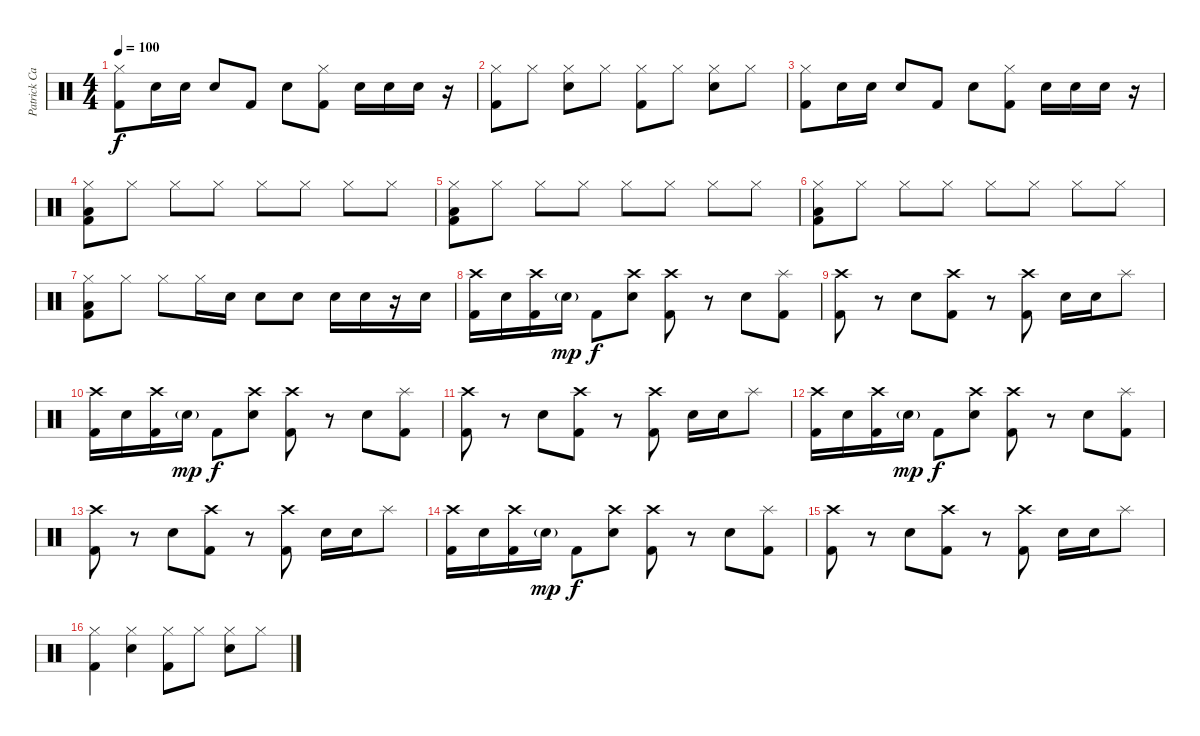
\track ("Patrick Carney" "Patrick Ca") {instrument percussion}
\staff {score}
\articulation defaults
\ts (4 4)
\tempo 100
\clef neutral
\ks c
("Hi-Hat (closed)" "Kick (hit) 2").8{dy f} "Snare (hit) 2".16 "Snare (hit) 2".16 "Snare (hit) 2".8 "Kick (hit) 2".8 "Snare (hit) 2".8 ("Hi-Hat (closed)" "Kick (hit) 2").8 "Snare (hit) 2".16 "Snare (hit) 2".16 "Snare (hit) 2".16 r.16 |
("Hi-Hat (closed)" "Kick (hit) 2").8 "Hi-Hat (closed)".8 ("Hi-Hat (closed)" "Snare (hit) 2").8 "Hi-Hat (closed)".8 ("Hi-Hat (closed)" "Kick (hit) 2").8 "Hi-Hat (closed)".8 ("Hi-Hat (closed)" "Snare (hit) 2").8 "Hi-Hat (closed)".8 |
("Hi-Hat (closed)" "Kick (hit) 2").8 "Snare (hit) 2".16 "Snare (hit) 2".16 "Snare (hit) 2".8 "Kick (hit) 2".8 "Snare (hit) 2".8 ("Hi-Hat (closed)" "Kick (hit) 2").8 "Snare (hit) 2".16 "Snare (hit) 2".16 "Snare (hit) 2".16 r.16 |
("Hi-Hat (closed)" "Low Floor Tom (hit)" "Kick (hit) 2").8 "Hi-Hat (closed)".8 "Hi-Hat (closed)".8 "Hi-Hat (closed)".8 "Hi-Hat (closed)".8 "Hi-Hat (closed)".8 "Hi-Hat (closed)".8 "Hi-Hat (closed)".8 |
("Hi-Hat (closed)" "Low Floor Tom (hit)" "Kick (hit) 2").8 "Hi-Hat (closed)".8 "Hi-Hat (closed)".8 "Hi-Hat (closed)".8 "Hi-Hat (closed)".8 "Hi-Hat (closed)".8 "Hi-Hat (closed)".8 "Hi-Hat (closed)".8 |
("Hi-Hat (closed)" "Low Floor Tom (hit)" "Kick (hit) 2").8 "Hi-Hat (closed)".8 "Hi-Hat (closed)".8 "Hi-Hat (closed)".8 "Hi-Hat (closed)".8 "Hi-Hat (closed)".8 "Hi-Hat (closed)".8 "Hi-Hat (closed)".8 |
("Hi-Hat (closed)" "Low Floor Tom (hit)" "Kick (hit) 2").8 "Hi-Hat (closed)".8 "Hi-Hat (closed)".8 "Hi-Hat (closed)".16 "Snare (hit) 2".16 "Snare (hit) 2".8 "Snare (hit) 2".8 "Snare (hit) 2".16 "Snare (hit) 2".16 r.16 "Snare (hit) 2".16 |
("Crash high (hit)" "Kick (hit) 2").16 "Snare (hit) 2".16 ("Crash high (hit)" "Kick (hit) 2").16 "Snare (hit) 2"{g}.16{dy mp} "Kick (hit) 2".8{dy f} ("Crash high (hit)" "Snare (hit) 2").8 ("Crash high (hit)" "Kick (hit) 2").8 r.8 "Snare (hit) 2".8 ("Splash (hit)" "Kick (hit) 2").8 |
("Crash high (hit)" "Kick (hit) 2").8 r.8 "Snare (hit) 2".8 ("Crash high (hit)" "Kick (hit) 2").8 r.8 ("Crash high (hit)" "Kick (hit) 2").8 "Snare (hit) 2".16 "Snare (hit) 2".16 "Splash (hit)".8 |
("Crash high (hit)" "Kick (hit) 2").16 "Snare (hit) 2".16 ("Crash high (hit)" "Kick (hit) 2").16 "Snare (hit) 2"{g}.16{dy mp} "Kick (hit) 2".8{dy f} ("Crash high (hit)" "Snare (hit) 2").8 ("Crash high (hit)" "Kick (hit) 2").8 r.8 "Snare (hit) 2".8 ("Splash (hit)" "Kick (hit) 2").8 |
("Crash high (hit)" "Kick (hit) 2").8 r.8 "Snare (hit) 2".8 ("Crash high (hit)" "Kick (hit) 2").8 r.8 ("Crash high (hit)" "Kick (hit) 2").8 "Snare (hit) 2".16 "Snare (hit) 2".16 "Splash (hit)".8 |
("Crash high (hit)" "Kick (hit) 2").16 "Snare (hit) 2".16 ("Crash high (hit)" "Kick (hit) 2").16 "Snare (hit) 2"{g}.16{dy mp} "Kick (hit) 2".8{dy f} ("Crash high (hit)" "Snare (hit) 2").8 ("Crash high (hit)" "Kick (hit) 2").8 r.8 "Snare (hit) 2".8 ("Splash (hit)" "Kick (hit) 2").8 |
("Crash high (hit)" "Kick (hit) 2").8 r.8 "Snare (hit) 2".8 ("Crash high (hit)" "Kick (hit) 2").8 r.8 ("Crash high (hit)" "Kick (hit) 2").8 "Snare (hit) 2".16 "Snare (hit) 2".16 "Splash (hit)".8 |
("Crash high (hit)" "Kick (hit) 2").16 "Snare (hit) 2".16 ("Crash high (hit)" "Kick (hit) 2").16 "Snare (hit) 2"{g}.16{dy mp} "Kick (hit) 2".8{dy f} ("Crash high (hit)" "Snare (hit) 2").8 ("Crash high (hit)" "Kick (hit) 2").8 r.8 "Snare (hit) 2".8 ("Splash (hit)" "Kick (hit) 2").8 |
("Crash high (hit)" "Kick (hit) 2").8 r.8 "Snare (hit) 2".8 ("Crash high (hit)" "Kick (hit) 2").8 r.8 ("Crash high (hit)" "Kick (hit) 2").8 "Snare (hit) 2".16 "Snare (hit) 2".16 "Splash (hit)".8 |
("Hi-Hat (closed)" "Kick (hit) 2").4 ("Hi-Hat (closed)" "Snare (hit) 2").4 ("Hi-Hat (closed)" "Kick (hit) 2").8 "Hi-Hat (closed)".8 ("Hi-Hat (closed)" "Snare (hit) 2").8 "Hi-Hat (closed)".8
